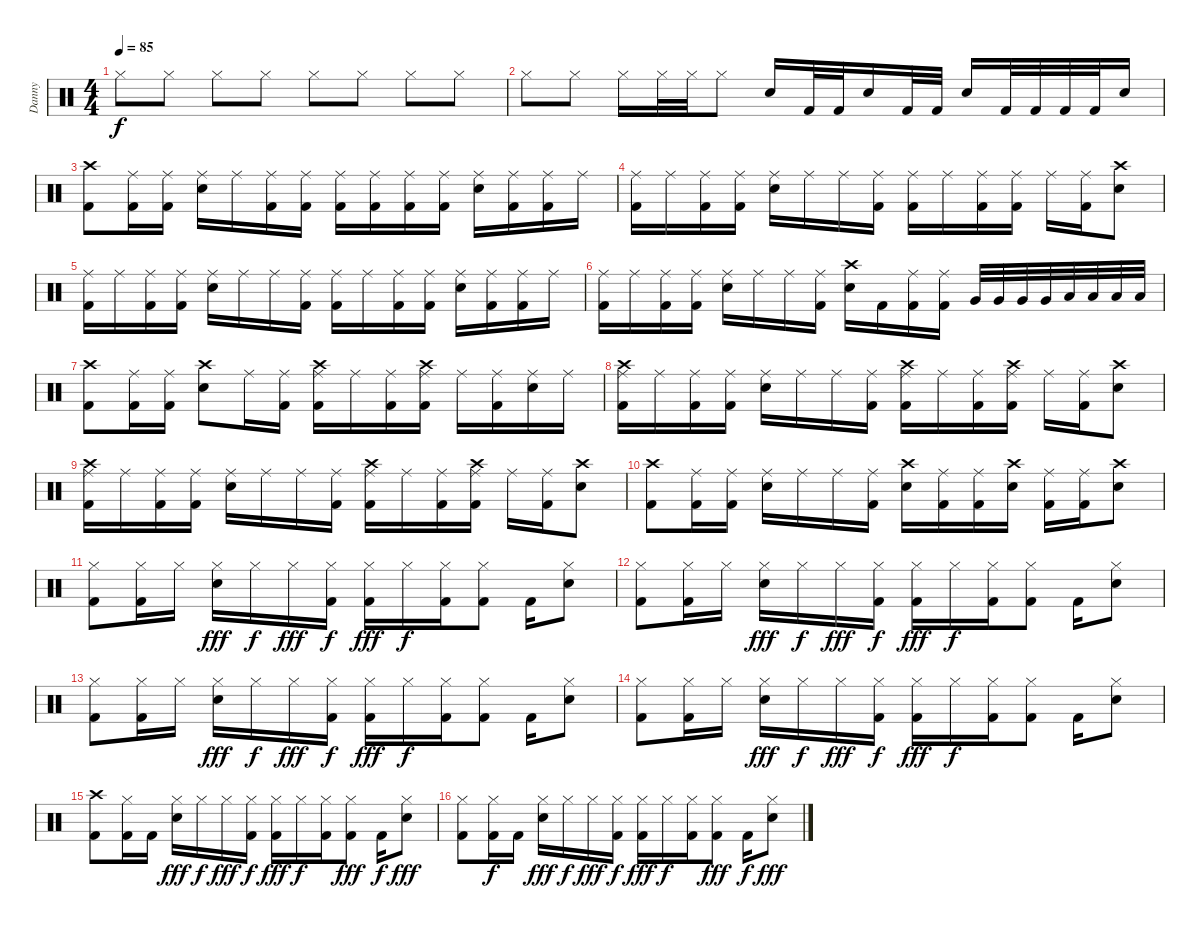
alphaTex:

\track ("Danny" "Danny") {instrument percussion}
\staff {score}
\articulation defaults
\ts (4 4)
\tempo 85
\clef neutral
\ks c "Hi-Hat (closed)".8{dy f} "Hi-Hat (closed)".8 "Hi-Hat (closed)".8 "Hi-Hat (closed)".8 "Hi-Hat (closed)".8 "Hi-Hat (closed)".8 "Hi-Hat (closed)".8 "Hi-Hat (closed)".8
|
"Hi-Hat (closed)".8 "Hi-Hat (closed)".8 "Hi-Hat (closed)".16 "Hi-Hat (closed)".32 "Hi-Hat (closed)".32 "Hi-Hat (closed)".8 "Snare (hit) 2".16 "Kick (hit) 2".32 "Kick (hit) 2".32 "Snare (hit) 2".16 "Kick (hit) 2".32 "Kick (hit) 2".32 "Snare (hit) 2".16 "Kick (hit) 2".32 "Kick (hit) 2".32 "Kick (hit) 2".32 "Kick (hit) 2".32 "Snare (hit) 2".16 |
("Crash high (hit)" "Kick (hit) 2").8 ("Ride (middle)" "Kick (hit) 2").16 ("Ride (middle)" "Kick (hit) 2").16 ("Ride (middle)" "Snare (hit) 2").16 "Ride (middle)".16 ("Ride (middle)" "Kick (hit) 2").16 ("Ride (middle)" "Kick (hit) 2").16 ("Ride (middle)" "Kick (hit) 2").16 ("Ride (middle)" "Kick (hit) 2").16 ("Ride (middle)" "Kick (hit) 2").16 ("Ride (middle)" "Kick (hit) 2").16 ("Ride (middle)" "Snare (hit) 2").16 ("Ride (middle)" "Kick (hit) 2").16 ("Ride (middle)" "Kick (hit) 2").16 "Ride (middle)".16 |
("Ride (middle)" "Kick (hit) 2").16 "Ride (middle)".16 ("Ride (middle)" "Kick (hit) 2").16 ("Ride (middle)" "Kick (hit) 2").16 ("Ride (middle)" "Snare (hit) 2").16 "Ride (middle)".16 "Ride (middle)".16 ("Ride (middle)" "Kick (hit) 2").16 ("Ride (middle)" "Kick (hit) 2").16 "Ride (middle)".16 ("Ride (middle)" "Kick (hit) 2").16 ("Ride (middle)" "Kick (hit) 2").16 "Ride (middle)".16 ("Ride (middle)" "Kick (hit) 2").16 ("Crash high (hit)" "Snare (hit) 2").8 |
("Ride (middle)" "Kick (hit) 2").16 "Ride (middle)".16 ("Ride (middle)" "Kick (hit) 2").16 ("Ride (middle)" "Kick (hit) 2").16 ("Ride (middle)" "Snare (hit) 2").16 "Ride (middle)".16 "Ride (middle)".16 ("Ride (middle)" "Kick (hit) 2").16 ("Ride (middle)" "Kick (hit) 2").16 "Ride (middle)".16 ("Ride (middle)" "Kick (hit) 2").16 ("Ride (middle)" "Kick (hit) 2").16 ("Ride (middle)" "Snare (hit) 2").16 ("Ride (middle)" "Kick (hit) 2").16 ("Ride (middle)" "Kick (hit) 2").16 "Ride (middle)".16 |
("Ride (middle)" "Kick (hit) 2").16 "Ride (middle)".16 ("Ride (middle)" "Kick (hit) 2").16 ("Ride (middle)" "Kick (hit) 2").16 ("Ride (middle)" "Snare (hit) 2").16 "Ride (middle)".16 "Ride (middle)".16 ("Ride (middle)" "Kick (hit) 2").16 ("Crash high (hit)" "Snare (hit) 2").16 "Kick (hit) 2".16 ("Ride (middle)" "Kick (hit) 2").16 ("Ride (middle)" "Kick (hit) 2").16 "Very Low Tom (hit)".32 "Very Low Tom (hit)".32 "Very Low Tom (hit)".32 "Very Low Tom (hit)".32 "Low Floor Tom (hit)".32 "Low Floor Tom (hit)".32 "Low Floor Tom (hit)".32 "Low Floor Tom (hit)".32 |
("Crash high (hit)" "Kick (hit) 2").8 ("Ride (middle)" "Kick (hit) 2").16 ("Ride (middle)" "Kick (hit) 2").16 ("Crash high (hit)" "Snare (hit) 2").8 "Ride (middle)".16 ("Ride (middle)" "Kick (hit) 2").16 ("Crash high (hit)" "Ride (middle)" "Kick (hit) 2").16 "Ride (middle)".16 ("Ride (middle)" "Kick (hit) 2").16 ("Crash high (hit)" "Ride (middle)" "Kick (hit) 2").16 "Ride (middle)".16 ("Ride (middle)" "Kick (hit) 2").16 ("Ride (middle)" "Snare (hit) 2").16 "Ride (middle)".16 |
("Crash high (hit)" "Ride (middle)" "Kick (hit) 2").16 "Ride (middle)".16 ("Ride (middle)" "Kick (hit) 2").16 ("Ride (middle)" "Kick (hit) 2").16 ("Ride (middle)" "Snare (hit) 2").16 "Ride (middle)".16 "Ride (middle)".16 ("Ride (middle)" "Kick (hit) 2").16 ("Crash high (hit)" "Ride (middle)" "Kick (hit) 2").16 "Ride (middle)".16 ("Ride (middle)" "Kick (hit) 2").16 ("Crash high (hit)" "Ride (middle)" "Kick (hit) 2").16 "Ride (middle)".16 ("Ride (middle)" "Kick (hit) 2").16 ("Crash high (hit)" "Snare (hit) 2").8 |
("Crash high (hit)" "Ride (middle)" "Kick (hit) 2").16 "Ride (middle)".16 ("Ride (middle)" "Kick (hit) 2").16 ("Ride (middle)" "Kick (hit) 2").16 ("Ride (middle)" "Snare (hit) 2").16 "Ride (middle)".16 "Ride (middle)".16 ("Ride (middle)" "Kick (hit) 2").16 ("Crash high (hit)" "Ride (middle)" "Kick (hit) 2").16 "Ride (middle)".16 ("Ride (middle)" "Kick (hit) 2").16 ("Crash high (hit)" "Ride (middle)" "Kick (hit) 2").16 "Ride (middle)".16 ("Ride (middle)" "Kick (hit) 2").16 ("Crash high (hit)" "Snare (hit) 2").8 |
("Crash high (hit)" "Kick (hit) 2").8 ("Ride (middle)" "Kick (hit) 2").16 ("Ride (middle)" "Kick (hit) 2").16 ("Ride (middle)" "Snare (hit) 2").16 "Ride (middle)".16 "Ride (middle)".16 ("Ride (middle)" "Kick (hit) 2").16 ("Crash high (hit)" "Snare (hit) 2").16 ("Ride (middle)" "Kick (hit) 2").16 ("Ride (middle)" "Kick (hit) 2").16 ("Crash high (hit)" "Snare (hit) 2").16 ("Ride (middle)" "Kick (hit) 2").16 ("Ride (middle)" "Kick (hit) 2").16 ("Crash high (hit)" "Snare (hit) 2").8 |
("Hi-Hat (closed)" "Kick (hit) 2").8 ("Hi-Hat (closed)" "Kick (hit) 2").16 "Hi-Hat (closed)".16 ("Hi-Hat (closed)" "Snare (hit) 2").16{dy fff} "Hi-Hat (closed)".16{dy f} "Hi-Hat (closed)".16{dy fff} ("Hi-Hat (closed)" "Kick (hit) 2").16{dy f} ("Hi-Hat (closed)" "Kick (hit) 2").16{dy fff} "Hi-Hat (closed)".16{dy f} ("Hi-Hat (closed)" "Kick (hit) 2").16 ("Hi-Hat (closed)" "Kick (hit) 2").8 "Kick (hit) 2".16 ("Hi-Hat (closed)" "Snare (hit) 2").8 |
("Hi-Hat (closed)" "Kick (hit) 2").8 ("Hi-Hat (closed)" "Kick (hit) 2").16 "Hi-Hat (closed)".16 ("Hi-Hat (closed)" "Snare (hit) 2").16{dy fff} "Hi-Hat (closed)".16{dy f} "Hi-Hat (closed)".16{dy fff} ("Hi-Hat (closed)" "Kick (hit) 2").16{dy f} ("Hi-Hat (closed)" "Kick (hit) 2").16{dy fff} "Hi-Hat (closed)".16{dy f} ("Hi-Hat (closed)" "Kick (hit) 2").16 ("Hi-Hat (closed)" "Kick (hit) 2").8 "Kick (hit) 2".16 ("Hi-Hat (closed)" "Snare (hit) 2").8 |
("Hi-Hat (closed)" "Kick (hit) 2").8 ("Hi-Hat (closed)" "Kick (hit) 2").16 "Hi-Hat (closed)".16 ("Hi-Hat (closed)" "Snare (hit) 2").16{dy fff} "Hi-Hat (closed)".16{dy f} "Hi-Hat (closed)".16{dy fff} ("Hi-Hat (closed)" "Kick (hit) 2").16{dy f} ("Hi-Hat (closed)" "Kick (hit) 2").16{dy fff} "Hi-Hat (closed)".16{dy f} ("Hi-Hat (closed)" "Kick (hit) 2").16 ("Hi-Hat (closed)" "Kick (hit) 2").8 "Kick (hit) 2".16 ("Hi-Hat (closed)" "Snare (hit) 2").8 |
("Hi-Hat (closed)" "Kick (hit) 2").8 ("Hi-Hat (closed)" "Kick (hit) 2").16 "Hi-Hat (closed)".16 ("Hi-Hat (closed)" "Snare (hit) 2").16{dy fff} "Hi-Hat (closed)".16{dy f} "Hi-Hat (closed)".16{dy fff} ("Hi-Hat (closed)" "Kick (hit) 2").16{dy f} ("Hi-Hat (closed)" "Kick (hit) 2").16{dy fff} "Hi-Hat (closed)".16{dy f} ("Hi-Hat (closed)" "Kick (hit) 2").16 ("Hi-Hat (closed)" "Kick (hit) 2").8 "Kick (hit) 2".16 ("Hi-Hat (closed)" "Snare (hit) 2").8 |
("Crash high (hit)" "Kick (hit) 2").8 ("Hi-Hat (closed)" "Kick (hit) 2").16 "Kick (hit) 2".16 ("Hi-Hat (closed)" "Snare (hit) 2").16{dy fff} "Hi-Hat (closed)".16{dy f} "Hi-Hat (closed)".16{dy fff} ("Hi-Hat (closed)" "Kick (hit) 2").16{dy f} ("Hi-Hat (closed)" "Kick (hit) 2").16{dy fff} "Hi-Hat (closed)".16{dy f} ("Hi-Hat (closed)" "Kick (hit) 2").16 ("Hi-Hat (closed)" "Kick (hit) 2").8{dy fff} "Kick (hit) 2".16{dy f} ("Hi-Hat (closed)" "Snare (hit) 2").8{dy fff} |
("Hi-Hat (closed)" "Kick (hit) 2").8 ("Hi-Hat (closed)" "Kick (hit) 2").16{dy f} "Kick (hit) 2".16 ("Hi-Hat (closed)" "Snare (hit) 2").16{dy fff} "Hi-Hat (closed)".16{dy f} "Hi-Hat (closed)".16{dy fff} ("Hi-Hat (closed)" "Kick (hit) 2").16{dy f} ("Hi-Hat (closed)" "Kick (hit) 2").16{dy fff} "Hi-Hat (closed)".16{dy f} ("Hi-Hat (closed)" "Kick (hit) 2").16 ("Hi-Hat (closed)" "Kick (hit) 2").8{dy fff} "Kick (hit) 2".16{dy f} ("Hi-Hat (closed)" "Snare (hit) 2").8{dy fff}
